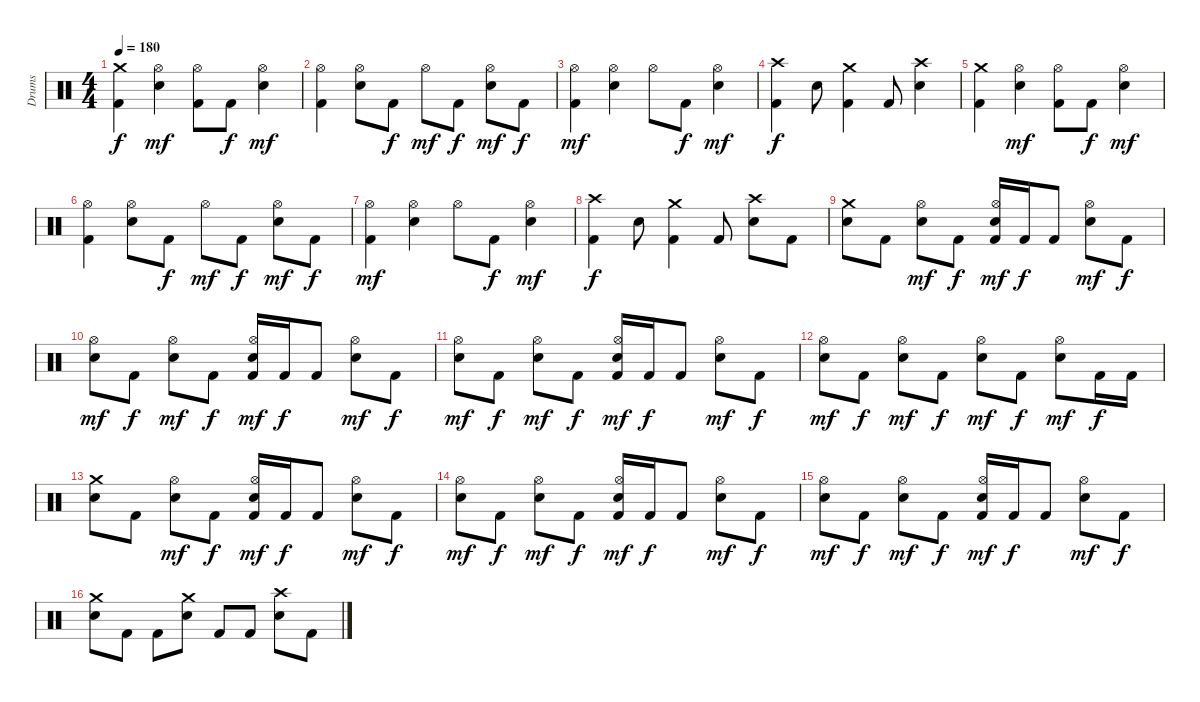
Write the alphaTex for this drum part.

\track ("Drums" "Drums") {instrument percussion}
\staff {score}
\articulation defaults
\ts (4 4)
\tempo 180
\clef neutral
\ks c
("Kick (hit) 2" "Crash medium (hit)").4{dy f} ("Hi-Hat (open)" "Electric Snare (hit)").4{dy mf} ("Kick (hit) 2" "Hi-Hat (open)").8 "Kick (hit) 2".8{dy f} ("Hi-Hat (open)" "Electric Snare (hit)").4{dy mf} |
("Kick (hit) 2" "Hi-Hat (open)").4 ("Hi-Hat (open)" "Electric Snare (hit)").8 "Kick (hit) 2".8{dy f} "Hi-Hat (open)".8{dy mf} "Kick (hit) 2".8{dy f} ("Hi-Hat (open)" "Electric Snare (hit)").8{dy mf} "Kick (hit) 2".8{dy f} |
("Kick (hit) 2" "Hi-Hat (open)").4{dy mf} ("Hi-Hat (open)" "Electric Snare (hit)").4 "Hi-Hat (open)".8 "Kick (hit) 2".8{dy f} ("Hi-Hat (open)" "Electric Snare (hit)").4{dy mf} |
("Kick (hit) 2" "Crash high (hit)").4{dy f} "Electric Snare (hit)".8 ("Kick (hit) 2" "Crash medium (hit)").4 "Kick (hit) 2".8 ("Crash high (hit)" "Electric Snare (hit)").4 |
("Kick (hit) 2" "Crash medium (hit)").4 ("Hi-Hat (open)" "Electric Snare (hit)").4{dy mf} ("Kick (hit) 2" "Hi-Hat (open)").8 "Kick (hit) 2".8{dy f} ("Hi-Hat (open)" "Electric Snare (hit)").4{dy mf} |
("Kick (hit) 2" "Hi-Hat (open)").4 ("Hi-Hat (open)" "Electric Snare (hit)").8 "Kick (hit) 2".8{dy f} "Hi-Hat (open)".8{dy mf} "Kick (hit) 2".8{dy f} ("Hi-Hat (open)" "Electric Snare (hit)").8{dy mf} "Kick (hit) 2".8{dy f} |
("Kick (hit) 2" "Hi-Hat (open)").4{dy mf} ("Hi-Hat (open)" "Electric Snare (hit)").4 "Hi-Hat (open)".8 "Kick (hit) 2".8{dy f} ("Hi-Hat (open)" "Electric Snare (hit)").4{dy mf} |
("Kick (hit) 2" "Crash high (hit)").4{dy f} "Electric Snare (hit)".8 ("Kick (hit) 2" "Crash medium (hit)").4 "Kick (hit) 2".8 ("Crash high (hit)" "Electric Snare (hit)").8 "Kick (hit) 2".8 |
("Crash medium (hit)" "Electric Snare (hit)").8 "Kick (hit) 2".8 ("Hi-Hat (open)" "Electric Snare (hit)").8{dy mf} "Kick (hit) 2".8{dy f} ("Kick (hit) 2" "Hi-Hat (open)" "Electric Snare (hit)").16{dy mf} "Kick (hit) 2".16{dy f} "Kick (hit) 2".8 ("Hi-Hat (open)" "Electric Snare (hit)").8{dy mf} "Kick (hit) 2".8{dy f} |
("Hi-Hat (open)" "Electric Snare (hit)").8{dy mf} "Kick (hit) 2".8{dy f} ("Hi-Hat (open)" "Electric Snare (hit)").8{dy mf} "Kick (hit) 2".8{dy f} ("Kick (hit) 2" "Hi-Hat (open)" "Electric Snare (hit)").16{dy mf} "Kick (hit) 2".16{dy f} "Kick (hit) 2".8 ("Hi-Hat (open)" "Electric Snare (hit)").8{dy mf} "Kick (hit) 2".8{dy f} |
("Hi-Hat (open)" "Electric Snare (hit)").8{dy mf} "Kick (hit) 2".8{dy f} ("Hi-Hat (open)" "Electric Snare (hit)").8{dy mf} "Kick (hit) 2".8{dy f} ("Kick (hit) 2" "Hi-Hat (open)" "Electric Snare (hit)").16{dy mf} "Kick (hit) 2".16{dy f} "Kick (hit) 2".8 ("Hi-Hat (open)" "Electric Snare (hit)").8{dy mf} "Kick (hit) 2".8{dy f} |
("Hi-Hat (open)" "Electric Snare (hit)").8{dy mf} "Kick (hit) 2".8{dy f} ("Hi-Hat (open)" "Electric Snare (hit)").8{dy mf} "Kick (hit) 2".8{dy f} ("Hi-Hat (open)" "Electric Snare (hit)").8{dy mf} "Kick (hit) 2".8{dy f} ("Hi-Hat (open)" "Electric Snare (hit)").8{dy mf} "Kick (hit) 2".16{dy f} "Kick (hit) 2".16 |
("Crash medium (hit)" "Electric Snare (hit)").8 "Kick (hit) 2".8 ("Hi-Hat (open)" "Electric Snare (hit)").8{dy mf} "Kick (hit) 2".8{dy f} ("Kick (hit) 2" "Hi-Hat (open)" "Electric Snare (hit)").16{dy mf} "Kick (hit) 2".16{dy f} "Kick (hit) 2".8 ("Hi-Hat (open)" "Electric Snare (hit)").8{dy mf} "Kick (hit) 2".8{dy f} |
("Hi-Hat (open)" "Electric Snare (hit)").8{dy mf} "Kick (hit) 2".8{dy f} ("Hi-Hat (open)" "Electric Snare (hit)").8{dy mf} "Kick (hit) 2".8{dy f} ("Kick (hit) 2" "Hi-Hat (open)" "Electric Snare (hit)").16{dy mf} "Kick (hit) 2".16{dy f} "Kick (hit) 2".8 ("Hi-Hat (open)" "Electric Snare (hit)").8{dy mf} "Kick (hit) 2".8{dy f} |
("Hi-Hat (open)" "Electric Snare (hit)").8{dy mf} "Kick (hit) 2".8{dy f} ("Hi-Hat (open)" "Electric Snare (hit)").8{dy mf} "Kick (hit) 2".8{dy f} ("Kick (hit) 2" "Hi-Hat (open)" "Electric Snare (hit)").16{dy mf} "Kick (hit) 2".16{dy f} "Kick (hit) 2".8 ("Hi-Hat (open)" "Electric Snare (hit)").8{dy mf} "Kick (hit) 2".8{dy f} |
("Crash medium (hit)" "Electric Snare (hit)").8 "Kick (hit) 2".8 "Kick (hit) 2".8 ("Crash medium (hit)" "Electric Snare (hit)").8 "Kick (hit) 2".8 "Kick (hit) 2".8 ("Crash high (hit)" "Electric Snare (hit)").8 "Kick (hit) 2".8
